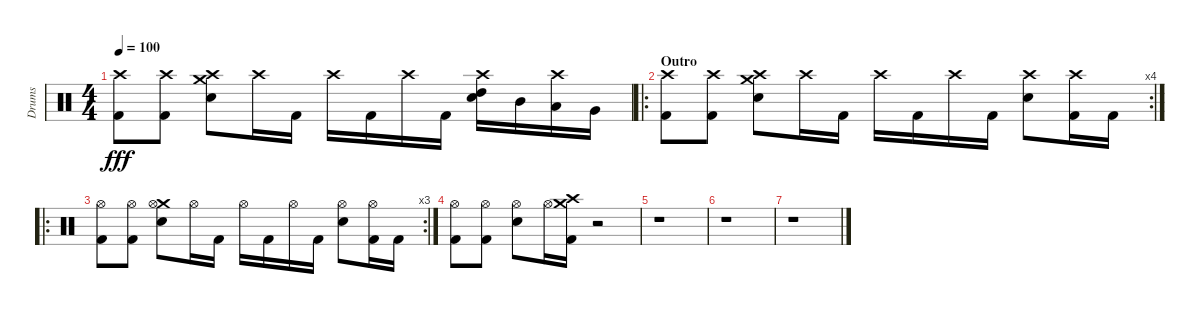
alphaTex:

\track ("Drums" "Drums") {instrument percussion}
\staff {score}
\articulation defaults
\ts (4 4)
\tempo 100
\clef neutral
\ks c
("Crash high (hit)" "Kick (hit) 2").8{dy fff} ("Crash high (hit)" "Kick (hit) 2").8 ("Crash high (hit)" "Crash medium (hit)" "Electric Snare (hit)").8 "Crash high (hit)".16 "Kick (hit) 2".16 "Crash high (hit)".16 "Kick (hit) 2".16 "Crash high (hit)".16 "Kick (hit) 2".16 ("Crash high (hit)" "High Tom (hit)" "Electric Snare (hit)").16 "Mid Tom (hit)".16 ("Crash high (hit)" "Low Tom (hit)").16 "Very Low Tom (hit)".16 |
\ro
\rc 4
\section ("" "Outro")
("Crash high (hit)" "Kick (hit) 2").8 ("Crash high (hit)" "Kick (hit) 2").8 ("Crash high (hit)" "Crash medium (hit)" "Electric Snare (hit)").8 "Crash high (hit)".16 "Kick (hit) 2".16 "Crash high (hit)".16 "Kick (hit) 2".16 "Crash high (hit)".16 "Kick (hit) 2".16 ("Crash high (hit)" "Electric Snare (hit)").8 ("Crash high (hit)" "Kick (hit) 2").16 "Kick (hit) 2".16 |
\ro
\rc 3
("Hi-Hat (open)" "Kick (hit) 2").8 ("Hi-Hat (open)" "Kick (hit) 2").8 ("Crash medium (hit)" "Hi-Hat (open)" "Electric Snare (hit)").8 "Hi-Hat (open)".16 "Kick (hit) 2".16 "Hi-Hat (open)".16 "Kick (hit) 2".16 "Hi-Hat (open)".16 "Kick (hit) 2".16 ("Hi-Hat (open)" "Electric Snare (hit)").8 ("Hi-Hat (open)" "Kick (hit) 2").16 "Kick (hit) 2".16 |
("Hi-Hat (open)" "Kick (hit) 2").8 ("Hi-Hat (open)" "Kick (hit) 2").8 ("Hi-Hat (open)" "Electric Snare (hit)").8 "Hi-Hat (open)".16 ("Crash high (hit)" "Crash medium (hit)" "Kick (hit) 2").16 r.2 |
r.1 |
r.1 |
r.1
